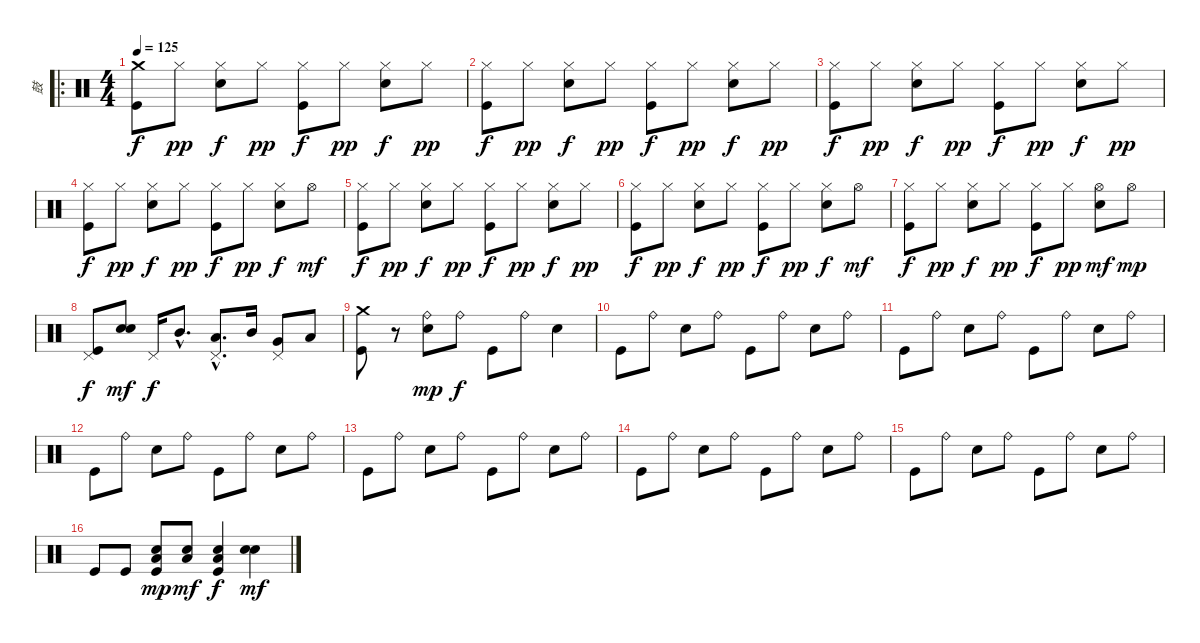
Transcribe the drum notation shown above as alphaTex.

\track ("鼓" "鼓") {instrument percussion}
\staff {score}
\articulation defaults
\ro
\ts (4 4)
\tempo 125
\clef neutral
\ks c
("Crash medium (hit)" "Kick (hit)").8{dy f} "Hi-Hat (closed)".8{dy pp} ("Hi-Hat (closed)" "Snare (hit) 2").8{dy f} "Hi-Hat (closed)".8{dy pp} ("Hi-Hat (closed)" "Kick (hit)").8{dy f} "Hi-Hat (closed)".8{dy pp} ("Hi-Hat (closed)" "Snare (hit) 2").8{dy f} "Hi-Hat (closed)".8{dy pp} |
("Hi-Hat (closed)" "Kick (hit)").8{dy f} "Hi-Hat (closed)".8{dy pp} ("Hi-Hat (closed)" "Snare (hit) 2").8{dy f} "Hi-Hat (closed)".8{dy pp} ("Hi-Hat (closed)" "Kick (hit)").8{dy f} "Hi-Hat (closed)".8{dy pp} ("Hi-Hat (closed)" "Snare (hit) 2").8{dy f} "Hi-Hat (closed)".8{dy pp} |
("Hi-Hat (closed)" "Kick (hit)").8{dy f} "Hi-Hat (closed)".8{dy pp} ("Hi-Hat (closed)" "Snare (hit) 2").8{dy f} "Hi-Hat (closed)".8{dy pp} ("Hi-Hat (closed)" "Kick (hit)").8{dy f} "Hi-Hat (closed)".8{dy pp} ("Hi-Hat (closed)" "Snare (hit) 2").8{dy f} "Hi-Hat (closed)".8{dy pp} |
("Hi-Hat (closed)" "Kick (hit)").8{dy f} "Hi-Hat (closed)".8{dy pp} ("Hi-Hat (closed)" "Snare (hit) 2").8{dy f} "Hi-Hat (closed)".8{dy pp} ("Hi-Hat (closed)" "Kick (hit)").8{dy f} "Hi-Hat (closed)".8{dy pp} ("Hi-Hat (closed)" "Snare (hit) 2").8{dy f} "Hi-Hat (open)".8{dy mf} |
("Hi-Hat (closed)" "Kick (hit)").8{dy f} "Hi-Hat (closed)".8{dy pp} ("Hi-Hat (closed)" "Snare (hit) 2").8{dy f} "Hi-Hat (closed)".8{dy pp} ("Hi-Hat (closed)" "Kick (hit)").8{dy f} "Hi-Hat (closed)".8{dy pp} ("Hi-Hat (closed)" "Snare (hit) 2").8{dy f} "Hi-Hat (closed)".8{dy pp} |
("Hi-Hat (closed)" "Kick (hit)").8{dy f} "Hi-Hat (closed)".8{dy pp} ("Hi-Hat (closed)" "Snare (hit) 2").8{dy f} "Hi-Hat (closed)".8{dy pp} ("Hi-Hat (closed)" "Kick (hit)").8{dy f} "Hi-Hat (closed)".8{dy pp} ("Hi-Hat (closed)" "Snare (hit) 2").8{dy f} "Hi-Hat (open)".8{dy mf} |
("Hi-Hat (closed)" "Kick (hit)").8{dy f} "Hi-Hat (closed)".8{dy pp} ("Hi-Hat (closed)" "Snare (hit) 2").8{dy f} "Hi-Hat (closed)".8{dy pp} ("Hi-Hat (closed)" "Kick (hit)").8{dy f} "Hi-Hat (closed)".8{dy pp} ("Hi-Hat (open)" "Snare (hit) 2").8{dy mf} "Hi-Hat (open)".8{dy mp} |
("Pedal Hi-Hat (hit)" "Kick (hit)").8{dy f} ("Snare (hit) 2" "Snare (hit) 2").8{bd 120 dy mf} "Pedal Hi-Hat (hit)".16{dy f} "Mid Tom (hit)"{hac}.8{d} ("Pedal Hi-Hat (hit)"{hac} "Low Tom (hit)"{hac}).8{d} "Mid Tom (hit)".16 ("Pedal Hi-Hat (hit)" "Very Low Tom (hit)").8 "Low Floor Tom (hit)".8 |
("Crash medium (hit)" "Kick (hit)").8 r.8 ("Ride (bell)" "Snare (hit) 2").8{dy mp} "Ride (bell)".8{dy f} "Kick (hit)".8 "Ride (bell)".8 "Snare (hit) 2".4 |
"Kick (hit)".8 "Ride (bell)".8 "Snare (hit) 2".8 "Ride (bell)".8 "Kick (hit)".8 "Ride (bell)".8 "Snare (hit) 2".8 "Ride (bell)".8 |
"Kick (hit)".8 "Ride (bell)".8 "Snare (hit) 2".8 "Ride (bell)".8 "Kick (hit)".8 "Ride (bell)".8 "Snare (hit) 2".8 "Ride (bell)".8 |
"Kick (hit)".8 "Ride (bell)".8 "Snare (hit) 2".8 "Ride (bell)".8 "Kick (hit)".8 "Ride (bell)".8 "Snare (hit) 2".8 "Ride (bell)".8 |
"Kick (hit)".8 "Ride (bell)".8 "Snare (hit) 2".8 "Ride (bell)".8 "Kick (hit)".8 "Ride (bell)".8 "Snare (hit) 2".8 "Ride (bell)".8 |
"Kick (hit)".8 "Ride (bell)".8 "Snare (hit) 2".8 "Ride (bell)".8 "Kick (hit)".8 "Ride (bell)".8 "Snare (hit) 2".8 "Ride (bell)".8 |
"Kick (hit)".8 "Ride (bell)".8 "Snare (hit) 2".8 "Ride (bell)".8 "Kick (hit)".8 "Ride (bell)".8 "Snare (hit) 2".8 "Ride (bell)".8 |
"Kick (hit)".8 "Kick (hit)".8 ("Snare (hit) 2" "Low Floor Tom (hit)" "Kick (hit)").8{dy mp} ("Snare (hit) 2" "Low Floor Tom (hit)").8{dy mf} ("Snare (hit) 2" "Low Floor Tom (hit)" "Kick (hit)").4{dy f} ("Snare (hit) 2" "Snare (hit) 2").4{bd 240 dy mf}
